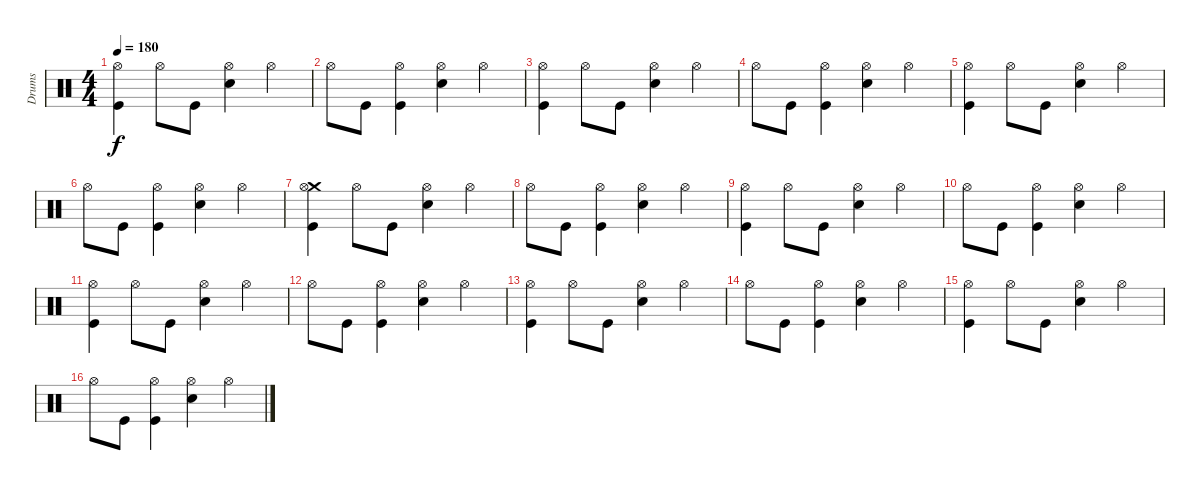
\track ("Drums" "Drums") {instrument percussion}
\staff {score}
\articulation defaults
\ts (4 4)
\tempo 180
\clef neutral
\ks c
("Hi-Hat (open)" "Kick (hit)").4{dy f} "Hi-Hat (open)".8 "Kick (hit)".8 ("Hi-Hat (open)" "Electric Snare (hit)").4 "Hi-Hat (open)".4 |
"Hi-Hat (open)".8 "Kick (hit)".8 ("Hi-Hat (open)" "Kick (hit)").4 ("Hi-Hat (open)" "Electric Snare (hit)").4 "Hi-Hat (open)".4 |
("Hi-Hat (open)" "Kick (hit)").4 "Hi-Hat (open)".8 "Kick (hit)".8 ("Hi-Hat (open)" "Electric Snare (hit)").4 "Hi-Hat (open)".4 |
"Hi-Hat (open)".8 "Kick (hit)".8 ("Hi-Hat (open)" "Kick (hit)").4 ("Hi-Hat (open)" "Electric Snare (hit)").4 "Hi-Hat (open)".4 |
("Hi-Hat (open)" "Kick (hit)").4 "Hi-Hat (open)".8 "Kick (hit)".8 ("Hi-Hat (open)" "Electric Snare (hit)").4 "Hi-Hat (open)".4 |
"Hi-Hat (open)".8 "Kick (hit)".8 ("Hi-Hat (open)" "Kick (hit)").4 ("Hi-Hat (open)" "Electric Snare (hit)").4 "Hi-Hat (open)".4 |
("Crash medium (hit)" "Hi-Hat (open)" "Kick (hit)").4 "Hi-Hat (open)".8 "Kick (hit)".8 ("Hi-Hat (open)" "Electric Snare (hit)").4 "Hi-Hat (open)".4 |
"Hi-Hat (open)".8 "Kick (hit)".8 ("Hi-Hat (open)" "Kick (hit)").4 ("Hi-Hat (open)" "Electric Snare (hit)").4 "Hi-Hat (open)".4 |
("Hi-Hat (open)" "Kick (hit)").4 "Hi-Hat (open)".8 "Kick (hit)".8 ("Hi-Hat (open)" "Electric Snare (hit)").4 "Hi-Hat (open)".4 |
"Hi-Hat (open)".8 "Kick (hit)".8 ("Hi-Hat (open)" "Kick (hit)").4 ("Hi-Hat (open)" "Electric Snare (hit)").4 "Hi-Hat (open)".4 |
("Hi-Hat (open)" "Kick (hit)").4 "Hi-Hat (open)".8 "Kick (hit)".8 ("Hi-Hat (open)" "Electric Snare (hit)").4 "Hi-Hat (open)".4 |
"Hi-Hat (open)".8 "Kick (hit)".8 ("Hi-Hat (open)" "Kick (hit)").4 ("Hi-Hat (open)" "Electric Snare (hit)").4 "Hi-Hat (open)".4 |
("Hi-Hat (open)" "Kick (hit)").4 "Hi-Hat (open)".8 "Kick (hit)".8 ("Hi-Hat (open)" "Electric Snare (hit)").4 "Hi-Hat (open)".4 |
"Hi-Hat (open)".8 "Kick (hit)".8 ("Hi-Hat (open)" "Kick (hit)").4 ("Hi-Hat (open)" "Electric Snare (hit)").4 "Hi-Hat (open)".4 |
("Hi-Hat (open)" "Kick (hit)").4 "Hi-Hat (open)".8 "Kick (hit)".8 ("Hi-Hat (open)" "Electric Snare (hit)").4 "Hi-Hat (open)".4 |
"Hi-Hat (open)".8 "Kick (hit)".8 ("Hi-Hat (open)" "Kick (hit)").4 ("Hi-Hat (open)" "Electric Snare (hit)").4 "Hi-Hat (open)".4
